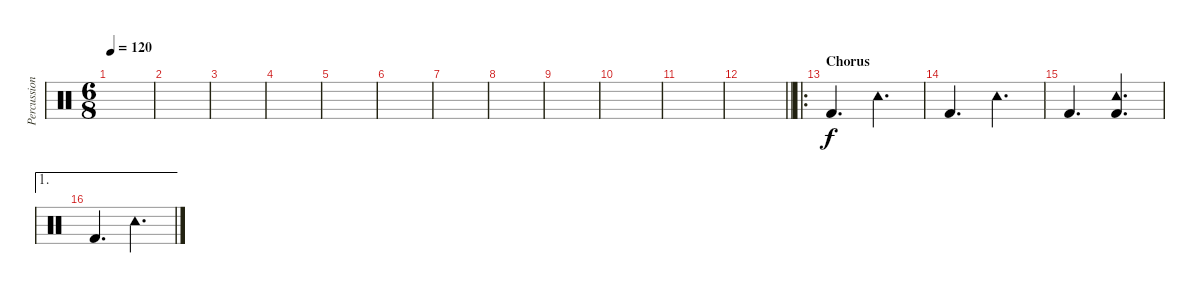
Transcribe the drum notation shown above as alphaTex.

\track ("Percussion" "Percussion") {instrument percussion}
\staff {score}
\articulation defaults
\ts (6 8)
\tempo 120
\clef neutral
\ks c
|
|
|
|
|
|
|
|
|
|
|
\barLineRight lightlight
|
\ro
\section ("" "Chorus")
"Kick (hit) 2".4{d} "Tambourine (hit)".4{d} |
"Kick (hit) 2".4{d} "Tambourine (hit)".4{d} |
"Kick (hit) 2".4{d} ("Tambourine (hit)" "Kick (hit) 2").4{d} |
\ae 1 "Kick (hit) 2".4{d} "Tambourine (hit)".4{d}
